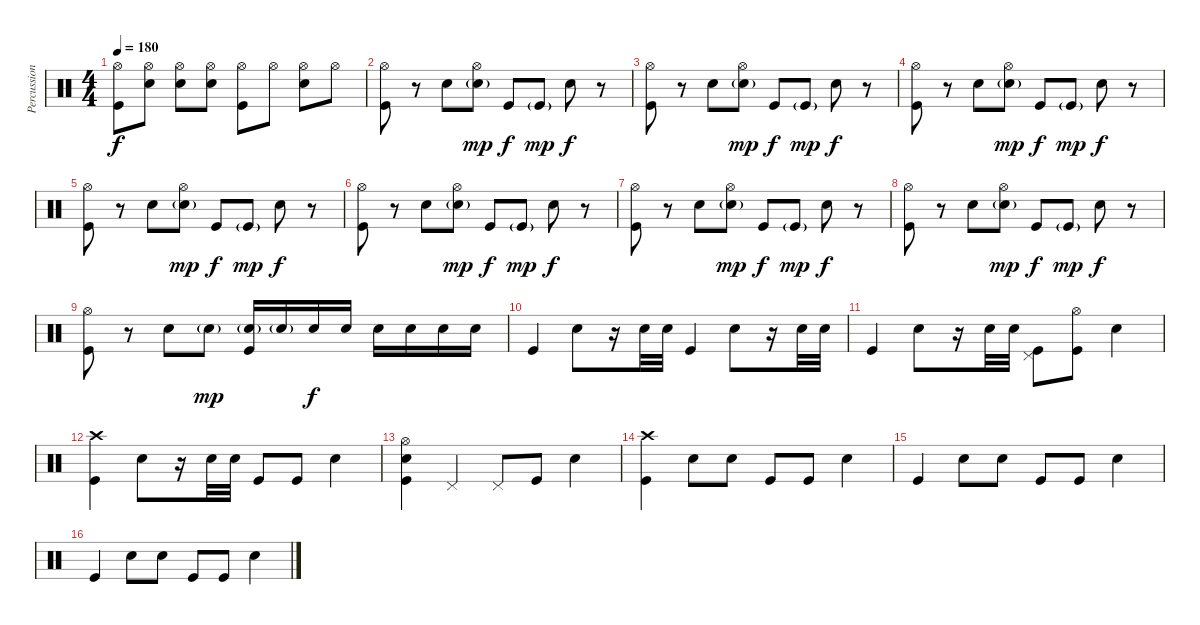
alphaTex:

\track ("Percussion" "Percussion") {instrument percussion}
\staff {score}
\articulation defaults
\ts (4 4)
\tempo 180
\clef neutral
\ks c
("Hi-Hat (open)" "Kick (hit)").8{dy f} ("Hi-Hat (open)" "Snare (hit) 2").8 ("Hi-Hat (open)" "Snare (hit) 2").8 ("Hi-Hat (open)" "Snare (hit) 2").8 ("Hi-Hat (open)" "Kick (hit)").8 "Hi-Hat (open)".8 ("Hi-Hat (open)" "Snare (hit) 2").8 "Hi-Hat (open)".8 |
("Hi-Hat (open)" "Kick (hit)").8 r.8 "Snare (hit) 2".8 ("Hi-Hat (open)" "Snare (hit) 2"{g}).8{dy mp} "Kick (hit)".8{dy f} "Kick (hit)"{g}.8{dy mp} "Snare (hit) 2".8{dy f} r.8 |
("Hi-Hat (open)" "Kick (hit)").8 r.8 "Snare (hit) 2".8 ("Hi-Hat (open)" "Snare (hit) 2"{g}).8{dy mp} "Kick (hit)".8{dy f} "Kick (hit)"{g}.8{dy mp} "Snare (hit) 2".8{dy f} r.8 |
("Hi-Hat (open)" "Kick (hit)").8 r.8 "Snare (hit) 2".8 ("Hi-Hat (open)" "Snare (hit) 2"{g}).8{dy mp} "Kick (hit)".8{dy f} "Kick (hit)"{g}.8{dy mp} "Snare (hit) 2".8{dy f} r.8 |
("Hi-Hat (open)" "Kick (hit)").8 r.8 "Snare (hit) 2".8 ("Hi-Hat (open)" "Snare (hit) 2"{g}).8{dy mp} "Kick (hit)".8{dy f} "Kick (hit)"{g}.8{dy mp} "Snare (hit) 2".8{dy f} r.8 |
("Hi-Hat (open)" "Kick (hit)").8 r.8 "Snare (hit) 2".8 ("Hi-Hat (open)" "Snare (hit) 2"{g}).8{dy mp} "Kick (hit)".8{dy f} "Kick (hit)"{g}.8{dy mp} "Snare (hit) 2".8{dy f} r.8 |
("Hi-Hat (open)" "Kick (hit)").8 r.8 "Snare (hit) 2".8 ("Hi-Hat (open)" "Snare (hit) 2"{g}).8{dy mp} "Kick (hit)".8{dy f} "Kick (hit)"{g}.8{dy mp} "Snare (hit) 2".8{dy f} r.8 |
("Hi-Hat (open)" "Kick (hit)").8 r.8 "Snare (hit) 2".8 ("Hi-Hat (open)" "Snare (hit) 2"{g}).8{dy mp} "Kick (hit)".8{dy f} "Kick (hit)"{g}.8{dy mp} "Snare (hit) 2".8{dy f} r.8 |
("Hi-Hat (open)" "Kick (hit)").8 r.8 "Snare (hit) 2".8 "Snare (hit) 2"{g}.8{dy mp} ("Snare (hit) 2"{g} "Kick (hit)").16 "Snare (hit) 2"{g}.16 "Snare (hit) 2".16{dy f} "Snare (hit) 2".16 "Snare (hit) 2".16 "Snare (hit) 2".16 "Snare (hit) 2".16 "Snare (hit) 2".16 |
"Kick (hit)".4 "Snare (hit) 2".8 r.16 "Snare (hit) 2".32 "Snare (hit) 2".32 "Kick (hit)".4 "Snare (hit) 2".8 r.16 "Snare (hit) 2".32 "Snare (hit) 2".32 |
"Kick (hit)".4 "Snare (hit) 2".8 r.16 "Snare (hit) 2".32 "Snare (hit) 2".32 ("Kick (hit)" "Pedal Hi-Hat (hit)").8 ("Hi-Hat (open)" "Kick (hit)").8 "Snare (hit) 2".4 |
("Crash high (hit)" "Kick (hit)").4 "Snare (hit) 2".8 r.16 "Snare (hit) 2".32 "Snare (hit) 2".32 "Kick (hit)".8 "Kick (hit)".8 "Snare (hit) 2".4 |
("Hi-Hat (open)" "Snare (hit) 2" "Kick (hit)").4 "Pedal Hi-Hat (hit)".4 "Pedal Hi-Hat (hit)".8 "Kick (hit)".8 "Snare (hit) 2".4 |
("Crash high (hit)" "Kick (hit)").4 "Snare (hit) 2".8 "Snare (hit) 2".8 "Kick (hit)".8 "Kick (hit)".8 "Snare (hit) 2".4 |
"Kick (hit)".4 "Snare (hit) 2".8 "Snare (hit) 2".8 "Kick (hit)".8 "Kick (hit)".8 "Snare (hit) 2".4 |
"Kick (hit)".4 "Snare (hit) 2".8 "Snare (hit) 2".8 "Kick (hit)".8 "Kick (hit)".8 "Snare (hit) 2".4
